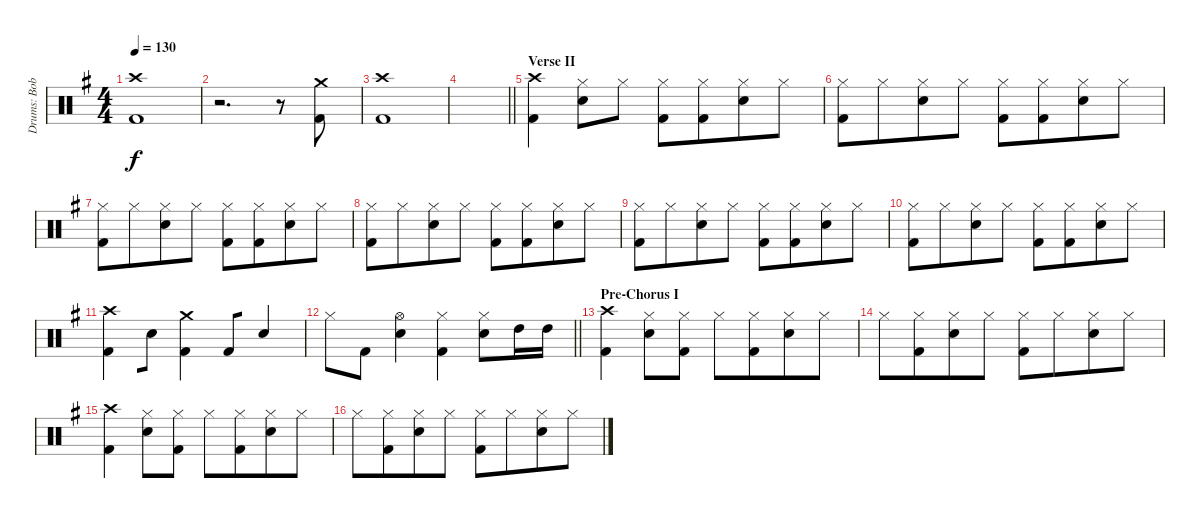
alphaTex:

\track ("Drums: Bobby" "Drums: Bob") {instrument percussion}
\staff {score}
\articulation defaults
\ts (4 4)
\tempo 130
\clef neutral
\ks g
("Crash high (hit)" "Kick (hit) 2").1{dy f} |
r.2{d} r.8 ("Crash medium (hit)" "Kick (hit) 2").8 |
("Crash high (hit)" "Kick (hit) 2").1 |
\barLineRight lightlight
|
\section ("" "Verse II")
("Crash high (hit)" "Kick (hit) 2").4 ("Hi-Hat (closed)" "Snare (hit) 2").8 "Hi-Hat (closed)".8 ("Hi-Hat (closed)" "Kick (hit) 2").8 ("Hi-Hat (closed)" "Kick (hit) 2").8{beam merge} ("Hi-Hat (closed)" "Snare (hit) 2").8 "Hi-Hat (closed)".8 |
("Hi-Hat (closed)" "Kick (hit) 2").8 "Hi-Hat (closed)".8{beam merge} ("Hi-Hat (closed)" "Snare (hit) 2").8 "Hi-Hat (closed)".8 ("Hi-Hat (closed)" "Kick (hit) 2").8 ("Hi-Hat (closed)" "Kick (hit) 2").8{beam merge} ("Hi-Hat (closed)" "Snare (hit) 2").8 "Hi-Hat (closed)".8 |
("Hi-Hat (closed)" "Kick (hit) 2").8 "Hi-Hat (closed)".8{beam merge} ("Hi-Hat (closed)" "Snare (hit) 2").8 "Hi-Hat (closed)".8 ("Hi-Hat (closed)" "Kick (hit) 2").8 ("Hi-Hat (closed)" "Kick (hit) 2").8{beam merge} ("Hi-Hat (closed)" "Snare (hit) 2").8 "Hi-Hat (closed)".8 |
("Hi-Hat (closed)" "Kick (hit) 2").8 "Hi-Hat (closed)".8{beam merge} ("Hi-Hat (closed)" "Snare (hit) 2").8 "Hi-Hat (closed)".8 ("Hi-Hat (closed)" "Kick (hit) 2").8 ("Hi-Hat (closed)" "Kick (hit) 2").8{beam merge} ("Hi-Hat (closed)" "Snare (hit) 2").8 "Hi-Hat (closed)".8 |
("Hi-Hat (closed)" "Kick (hit) 2").8 "Hi-Hat (closed)".8{beam merge} ("Hi-Hat (closed)" "Snare (hit) 2").8 "Hi-Hat (closed)".8 ("Hi-Hat (closed)" "Kick (hit) 2").8 ("Hi-Hat (closed)" "Kick (hit) 2").8{beam merge} ("Hi-Hat (closed)" "Snare (hit) 2").8 "Hi-Hat (closed)".8 |
("Hi-Hat (closed)" "Kick (hit) 2").8 "Hi-Hat (closed)".8{beam merge} ("Hi-Hat (closed)" "Snare (hit) 2").8 "Hi-Hat (closed)".8 ("Hi-Hat (closed)" "Kick (hit) 2").8 ("Hi-Hat (closed)" "Kick (hit) 2").8{beam merge} ("Hi-Hat (closed)" "Snare (hit) 2").8 "Hi-Hat (closed)".8 |
("Crash high (hit)" "Kick (hit) 2").4{beam merge} "Snare (hit) 2".8 ("Crash medium (hit)" "Kick (hit) 2").4 "Kick (hit) 2".8{beam merge} "Snare (hit) 2".4 |
\barLineRight lightlight "Hi-Hat (closed)".8 "Kick (hit) 2".8
("Hi-Hat (open)" "Snare (hit) 2").4 ("Hi-Hat (closed)" "Kick (hit) 2").4 ("Hi-Hat (closed)" "Snare (hit) 2").8 "High Tom (hit)".16 "High Tom (hit)".16 |
\section ("" "Pre-Chorus I")
("Crash high (hit)" "Kick (hit) 2").4{beam merge} ("Hi-Hat (closed)" "Snare (hit) 2").8 ("Hi-Hat (closed)" "Kick (hit) 2").8 "Hi-Hat (closed)".8 ("Hi-Hat (closed)" "Kick (hit) 2").8{beam merge} ("Hi-Hat (closed)" "Snare (hit) 2").8 "Hi-Hat (closed)".8 |
"Hi-Hat (closed)".8 ("Hi-Hat (closed)" "Kick (hit) 2").8{beam merge} ("Hi-Hat (closed)" "Snare (hit) 2").8 "Hi-Hat (closed)".8 ("Hi-Hat (closed)" "Kick (hit) 2").8 "Hi-Hat (closed)".8{beam merge} ("Hi-Hat (closed)" "Snare (hit) 2").8 "Hi-Hat (closed)".8 |
("Crash high (hit)" "Kick (hit) 2").4{beam merge} ("Hi-Hat (closed)" "Snare (hit) 2").8 ("Hi-Hat (closed)" "Kick (hit) 2").8 "Hi-Hat (closed)".8 ("Hi-Hat (closed)" "Kick (hit) 2").8{beam merge} ("Hi-Hat (closed)" "Snare (hit) 2").8 "Hi-Hat (closed)".8 |
"Hi-Hat (closed)".8 ("Hi-Hat (closed)" "Kick (hit) 2").8{beam merge} ("Hi-Hat (closed)" "Snare (hit) 2").8 "Hi-Hat (closed)".8 ("Hi-Hat (closed)" "Kick (hit) 2").8 "Hi-Hat (closed)".8{beam merge} ("Hi-Hat (closed)" "Snare (hit) 2").8 "Hi-Hat (closed)".8
